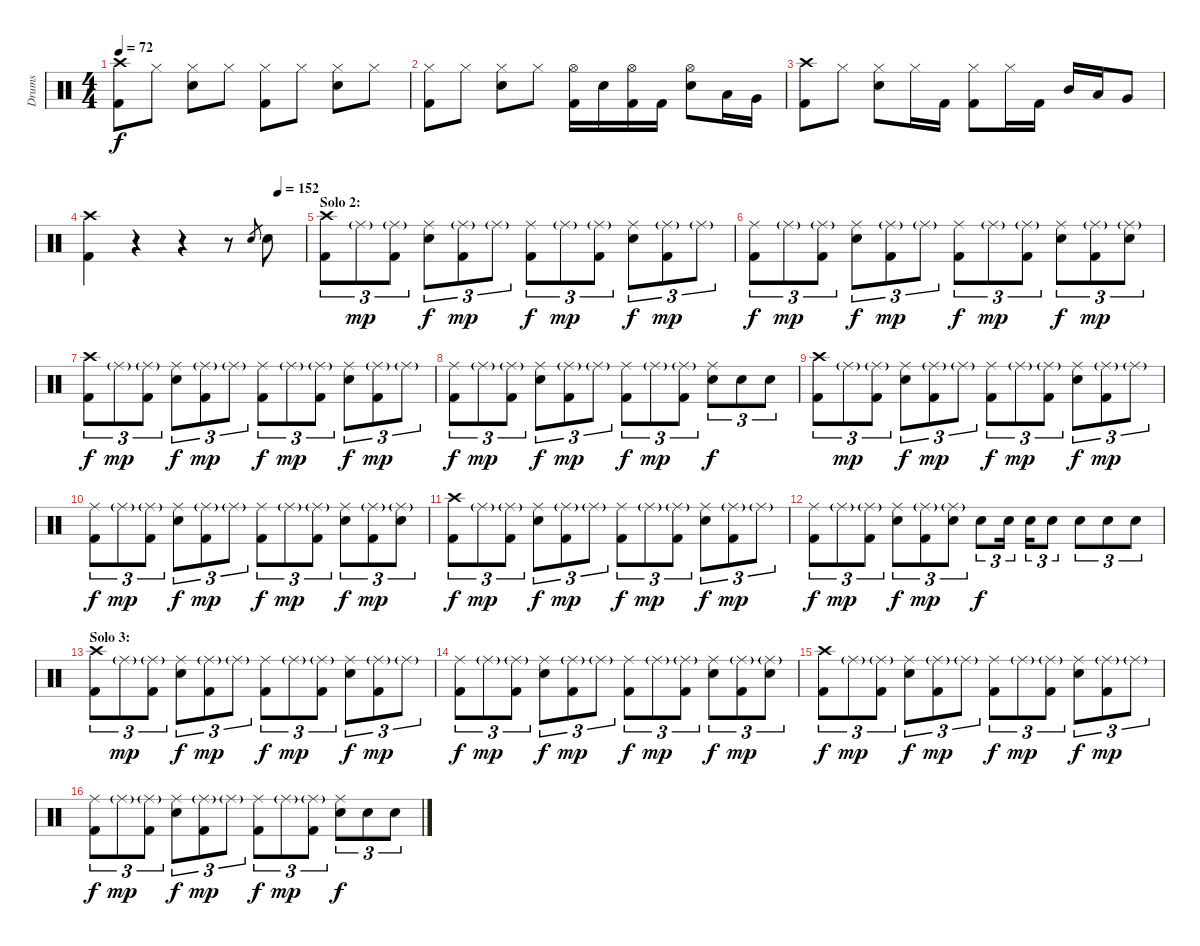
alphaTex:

\track ("Drums" "Drums") {instrument percussion}
\staff {score}
\articulation defaults
\ts (4 4)
\tempo 72
\clef neutral
\ks c
("Crash high (hit)" "Kick (hit) 2").8{dy f} "Hi-Hat (closed)".8 ("Hi-Hat (closed)" "Electric Snare (hit)").8 "Hi-Hat (closed)".8 ("Hi-Hat (closed)" "Kick (hit) 2").8 "Hi-Hat (closed)".8 ("Hi-Hat (closed)" "Electric Snare (hit)").8 "Hi-Hat (closed)".8 |
("Hi-Hat (closed)" "Kick (hit) 2").8 "Hi-Hat (closed)".8 ("Hi-Hat (closed)" "Electric Snare (hit)").8 "Hi-Hat (closed)".8 ("Hi-Hat (open)" "Kick (hit) 2").16 "Electric Snare (hit)".16 ("Hi-Hat (open)" "Kick (hit) 2").16 "Kick (hit) 2".16 ("Hi-Hat (open)" "Electric Snare (hit)").8 "Low Tom (hit)".16 "Very Low Tom (hit)".16 |
("Crash high (hit)" "Kick (hit) 2").8 "Hi-Hat (closed)".8 ("Hi-Hat (closed)" "Electric Snare (hit)").8 "Hi-Hat (closed)".16 "Kick (hit) 2".16 ("Hi-Hat (closed)" "Kick (hit) 2").8 "Hi-Hat (closed)".16 "Kick (hit) 2".16 "Mid Tom (hit)".16 "Low Tom (hit)".16 "Very Low Tom (hit)".8 |
\tempo (152 0.875)
("Crash high (hit)" "Kick (hit) 2").4 r.4 r.4 r.8 "Electric Snare (hit)".8{gr} "Electric Snare (hit)".8 |
\section ("" "Solo 2:")
("Crash high (hit)" "Kick (hit) 2").8{tu (3 2)} "Ride (middle)"{g}.8{tu (3 2) dy mp} ("Ride (middle)"{g} "Kick (hit) 2").8{tu (3 2)} ("Ride (middle)" "Electric Snare (hit)").8{tu (3 2) dy f} ("Ride (middle)"{g} "Kick (hit) 2").8{tu (3 2) dy mp} "Ride (middle)"{g}.8{tu (3 2)} ("Ride (middle)" "Kick (hit) 2").8{tu (3 2) dy f} "Ride (middle)"{g}.8{tu (3 2) dy mp} ("Ride (middle)"{g} "Kick (hit) 2").8{tu (3 2)} ("Ride (middle)" "Electric Snare (hit)").8{tu (3 2) dy f} ("Ride (middle)"{g} "Kick (hit) 2").8{tu (3 2) dy mp} "Ride (middle)"{g}.8{tu (3 2)} |
("Ride (middle)" "Kick (hit) 2").8{tu (3 2) dy f} "Ride (middle)"{g}.8{tu (3 2) dy mp} ("Ride (middle)"{g} "Kick (hit) 2").8{tu (3 2)} ("Ride (middle)" "Electric Snare (hit)").8{tu (3 2) dy f} ("Ride (middle)"{g} "Kick (hit) 2").8{tu (3 2) dy mp} "Ride (middle)"{g}.8{tu (3 2)} ("Ride (middle)" "Kick (hit) 2").8{tu (3 2) dy f} "Ride (middle)"{g}.8{tu (3 2) dy mp} ("Ride (middle)"{g} "Kick (hit) 2").8{tu (3 2)} ("Ride (middle)" "Electric Snare (hit)").8{tu (3 2) dy f} ("Ride (middle)"{g} "Kick (hit) 2").8{tu (3 2) dy mp} ("Ride (middle)"{g} "Electric Snare (hit)").8{tu (3 2)} |
("Crash high (hit)" "Kick (hit) 2").8{tu (3 2) dy f} "Ride (middle)"{g}.8{tu (3 2) dy mp} ("Ride (middle)"{g} "Kick (hit) 2").8{tu (3 2)} ("Ride (middle)" "Electric Snare (hit)").8{tu (3 2) dy f} ("Ride (middle)"{g} "Kick (hit) 2").8{tu (3 2) dy mp} "Ride (middle)"{g}.8{tu (3 2)} ("Ride (middle)" "Kick (hit) 2").8{tu (3 2) dy f} "Ride (middle)"{g}.8{tu (3 2) dy mp} ("Ride (middle)"{g} "Kick (hit) 2").8{tu (3 2)} ("Ride (middle)" "Electric Snare (hit)").8{tu (3 2) dy f} ("Ride (middle)"{g} "Kick (hit) 2").8{tu (3 2) dy mp} "Ride (middle)"{g}.8{tu (3 2)} |
("Ride (middle)" "Kick (hit) 2").8{tu (3 2) dy f} "Ride (middle)"{g}.8{tu (3 2) dy mp} ("Ride (middle)"{g} "Kick (hit) 2").8{tu (3 2)} ("Ride (middle)" "Electric Snare (hit)").8{tu (3 2) dy f} ("Ride (middle)"{g} "Kick (hit) 2").8{tu (3 2) dy mp} "Ride (middle)"{g}.8{tu (3 2)} ("Ride (middle)" "Kick (hit) 2").8{tu (3 2) dy f} "Ride (middle)"{g}.8{tu (3 2) dy mp} ("Ride (middle)"{g} "Kick (hit) 2").8{tu (3 2)} ("Ride (middle)" "Electric Snare (hit)").8{tu (3 2) dy f} "Electric Snare (hit)".8{tu (3 2)} "Electric Snare (hit)".8{tu (3 2)} |
("Crash high (hit)" "Kick (hit) 2").8{tu (3 2)} "Ride (middle)"{g}.8{tu (3 2) dy mp} ("Ride (middle)"{g} "Kick (hit) 2").8{tu (3 2)} ("Ride (middle)" "Electric Snare (hit)").8{tu (3 2) dy f} ("Ride (middle)"{g} "Kick (hit) 2").8{tu (3 2) dy mp} "Ride (middle)"{g}.8{tu (3 2)} ("Ride (middle)" "Kick (hit) 2").8{tu (3 2) dy f} "Ride (middle)"{g}.8{tu (3 2) dy mp} ("Ride (middle)"{g} "Kick (hit) 2").8{tu (3 2)} ("Ride (middle)" "Electric Snare (hit)").8{tu (3 2) dy f} ("Ride (middle)"{g} "Kick (hit) 2").8{tu (3 2) dy mp} "Ride (middle)"{g}.8{tu (3 2)} |
("Ride (middle)" "Kick (hit) 2").8{tu (3 2) dy f} "Ride (middle)"{g}.8{tu (3 2) dy mp} ("Ride (middle)"{g} "Kick (hit) 2").8{tu (3 2)} ("Ride (middle)" "Electric Snare (hit)").8{tu (3 2) dy f} ("Ride (middle)"{g} "Kick (hit) 2").8{tu (3 2) dy mp} "Ride (middle)"{g}.8{tu (3 2)} ("Ride (middle)" "Kick (hit) 2").8{tu (3 2) dy f} "Ride (middle)"{g}.8{tu (3 2) dy mp} ("Ride (middle)"{g} "Kick (hit) 2").8{tu (3 2)} ("Ride (middle)" "Electric Snare (hit)").8{tu (3 2) dy f} ("Ride (middle)"{g} "Kick (hit) 2").8{tu (3 2) dy mp} ("Ride (middle)"{g} "Electric Snare (hit)").8{tu (3 2)} |
("Crash high (hit)" "Kick (hit) 2").8{tu (3 2) dy f} "Ride (middle)"{g}.8{tu (3 2) dy mp} ("Ride (middle)"{g} "Kick (hit) 2").8{tu (3 2)} ("Ride (middle)" "Electric Snare (hit)").8{tu (3 2) dy f} ("Ride (middle)"{g} "Kick (hit) 2").8{tu (3 2) dy mp} "Ride (middle)"{g}.8{tu (3 2)} ("Ride (middle)" "Kick (hit) 2").8{tu (3 2) dy f} "Ride (middle)"{g}.8{tu (3 2) dy mp} ("Ride (middle)"{g} "Kick (hit) 2").8{tu (3 2)} ("Ride (middle)" "Electric Snare (hit)").8{tu (3 2) dy f} ("Ride (middle)"{g} "Kick (hit) 2").8{tu (3 2) dy mp} "Ride (middle)"{g}.8{tu (3 2)} |
("Ride (middle)" "Kick (hit) 2").8{tu (3 2) dy f} "Ride (middle)"{g}.8{tu (3 2) dy mp} ("Ride (middle)"{g} "Kick (hit) 2").8{tu (3 2)} ("Ride (middle)" "Electric Snare (hit)").8{tu (3 2) dy f} ("Ride (middle)"{g} "Kick (hit) 2").8{tu (3 2) dy mp} ("Ride (middle)"{g} "Electric Snare (hit)").8{tu (3 2)} "Electric Snare (hit)".8{tu (3 2) dy f} "Electric Snare (hit)".16{tu (3 2)} "Electric Snare (hit)".16{tu (3 2)} "Electric Snare (hit)".8{tu (3 2)} "Electric Snare (hit)".8{tu (3 2)} "Electric Snare (hit)".8{tu (3 2)} "Electric Snare (hit)".8{tu (3 2)} |
\section ("" "Solo 3:")
("Crash high (hit)" "Kick (hit) 2").8{tu (3 2)} "Ride (middle)"{g}.8{tu (3 2) dy mp} ("Ride (middle)"{g} "Kick (hit) 2").8{tu (3 2)} ("Ride (middle)" "Electric Snare (hit)").8{tu (3 2) dy f} ("Ride (middle)"{g} "Kick (hit) 2").8{tu (3 2) dy mp} "Ride (middle)"{g}.8{tu (3 2)} ("Ride (middle)" "Kick (hit) 2").8{tu (3 2) dy f} "Ride (middle)"{g}.8{tu (3 2) dy mp} ("Ride (middle)"{g} "Kick (hit) 2").8{tu (3 2)} ("Ride (middle)" "Electric Snare (hit)").8{tu (3 2) dy f} ("Ride (middle)"{g} "Kick (hit) 2").8{tu (3 2) dy mp} "Ride (middle)"{g}.8{tu (3 2)} |
("Ride (middle)" "Kick (hit) 2").8{tu (3 2) dy f} "Ride (middle)"{g}.8{tu (3 2) dy mp} ("Ride (middle)"{g} "Kick (hit) 2").8{tu (3 2)} ("Ride (middle)" "Electric Snare (hit)").8{tu (3 2) dy f} ("Ride (middle)"{g} "Kick (hit) 2").8{tu (3 2) dy mp} "Ride (middle)"{g}.8{tu (3 2)} ("Ride (middle)" "Kick (hit) 2").8{tu (3 2) dy f} "Ride (middle)"{g}.8{tu (3 2) dy mp} ("Ride (middle)"{g} "Kick (hit) 2").8{tu (3 2)} ("Ride (middle)" "Electric Snare (hit)").8{tu (3 2) dy f} ("Ride (middle)"{g} "Kick (hit) 2").8{tu (3 2) dy mp} ("Ride (middle)"{g} "Electric Snare (hit)").8{tu (3 2)} |
("Crash high (hit)" "Kick (hit) 2").8{tu (3 2) dy f} "Ride (middle)"{g}.8{tu (3 2) dy mp} ("Ride (middle)"{g} "Kick (hit) 2").8{tu (3 2)} ("Ride (middle)" "Electric Snare (hit)").8{tu (3 2) dy f} ("Ride (middle)"{g} "Kick (hit) 2").8{tu (3 2) dy mp} "Ride (middle)"{g}.8{tu (3 2)} ("Ride (middle)" "Kick (hit) 2").8{tu (3 2) dy f} "Ride (middle)"{g}.8{tu (3 2) dy mp} ("Ride (middle)"{g} "Kick (hit) 2").8{tu (3 2)} ("Ride (middle)" "Electric Snare (hit)").8{tu (3 2) dy f} ("Ride (middle)"{g} "Kick (hit) 2").8{tu (3 2) dy mp} "Ride (middle)"{g}.8{tu (3 2)} |
("Ride (middle)" "Kick (hit) 2").8{tu (3 2) dy f} "Ride (middle)"{g}.8{tu (3 2) dy mp} ("Ride (middle)"{g} "Kick (hit) 2").8{tu (3 2)} ("Ride (middle)" "Electric Snare (hit)").8{tu (3 2) dy f} ("Ride (middle)"{g} "Kick (hit) 2").8{tu (3 2) dy mp} "Ride (middle)"{g}.8{tu (3 2)} ("Ride (middle)" "Kick (hit) 2").8{tu (3 2) dy f} "Ride (middle)"{g}.8{tu (3 2) dy mp} ("Ride (middle)"{g} "Kick (hit) 2").8{tu (3 2)} ("Ride (middle)" "Electric Snare (hit)").8{tu (3 2) dy f} "Electric Snare (hit)".8{tu (3 2)} "Electric Snare (hit)".8{tu (3 2)}
